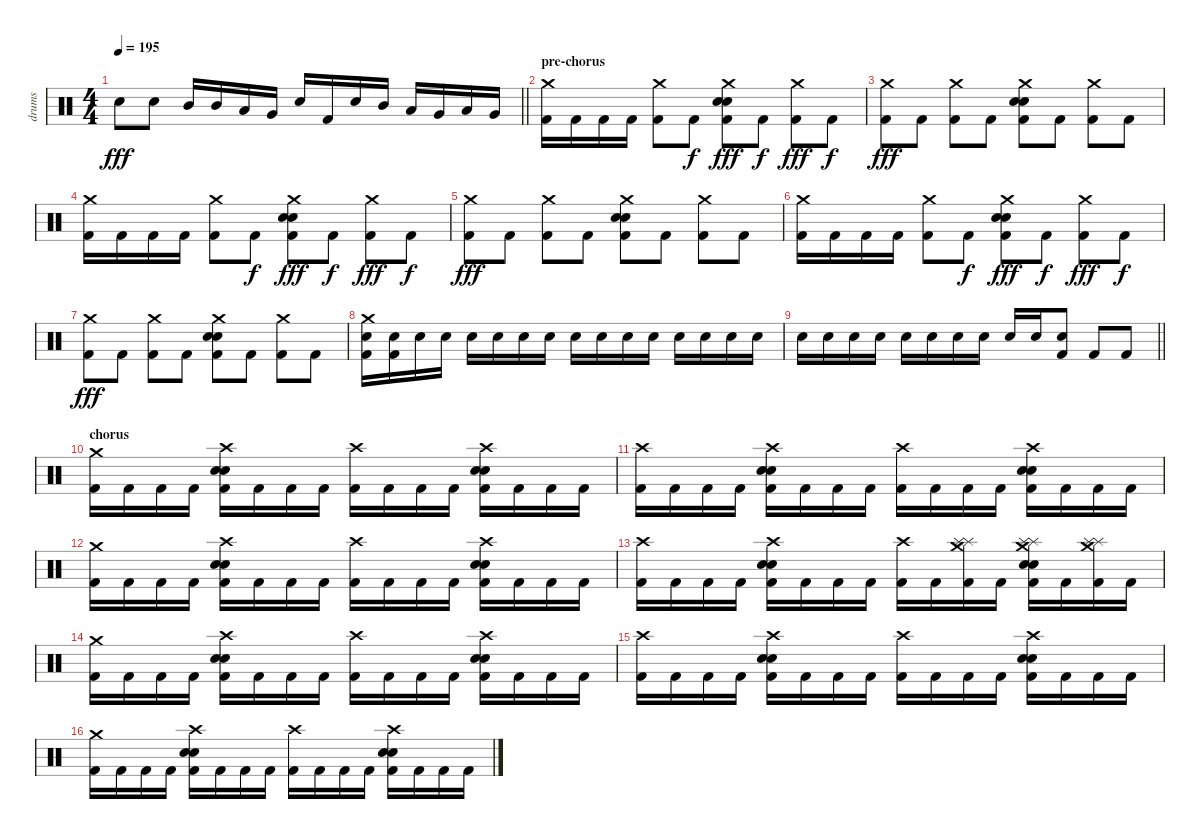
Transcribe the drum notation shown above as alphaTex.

\track ("drums" "drums") {instrument percussion bank 16}
\staff {score}
\articulation defaults
\ts (4 4)
\tempo 195
\clef neutral
\barLineRight lightlight
\ks c "Electric Snare (hit)".8{dy fff} "Electric Snare (hit)".8 "Mid Tom (hit)".16 "Mid Tom (hit)".16 "Low Tom (hit)".16 "Very Low Tom (hit)".16 "Electric Snare (hit)".16 "Kick (hit) 2".16 "Electric Snare (hit)".16 "Mid Tom (hit)".16 "Low Tom (hit)".16 "Very Low Tom (hit)".16 "Low Tom (hit)".16 "Very Low Tom (hit)".16
|
\section ("" "pre-chorus")
("Crash medium (hit)" "Kick (hit) 2").16 "Kick (hit) 2".16 "Kick (hit) 2".16 "Kick (hit) 2".16 ("Crash medium (hit)" "Kick (hit) 2").8 "Kick (hit) 2".8{dy f} ("Crash medium (hit)" "Electric Snare (hit)" "Electric Snare (hit)" "Kick (hit) 2").8{dy fff} "Kick (hit) 2".8{dy f} ("Crash medium (hit)" "Kick (hit) 2").8{dy fff} "Kick (hit) 2".8{dy f} |
("Crash medium (hit)" "Kick (hit) 2").8{dy fff} "Kick (hit) 2".8 ("Crash medium (hit)" "Kick (hit) 2").8 "Kick (hit) 2".8 ("Crash medium (hit)" "Electric Snare (hit)" "Electric Snare (hit)" "Kick (hit) 2").8 "Kick (hit) 2".8 ("Crash medium (hit)" "Kick (hit) 2").8 "Kick (hit) 2".8 |
("Crash medium (hit)" "Kick (hit) 2").16 "Kick (hit) 2".16 "Kick (hit) 2".16 "Kick (hit) 2".16 ("Crash medium (hit)" "Kick (hit) 2").8 "Kick (hit) 2".8{dy f} ("Crash medium (hit)" "Electric Snare (hit)" "Electric Snare (hit)" "Kick (hit) 2").8{dy fff} "Kick (hit) 2".8{dy f} ("Crash medium (hit)" "Kick (hit) 2").8{dy fff} "Kick (hit) 2".8{dy f} |
("Crash medium (hit)" "Kick (hit) 2").8{dy fff} "Kick (hit) 2".8 ("Crash medium (hit)" "Kick (hit) 2").8 "Kick (hit) 2".8 ("Crash medium (hit)" "Electric Snare (hit)" "Electric Snare (hit)" "Kick (hit) 2").8 "Kick (hit) 2".8 ("Crash medium (hit)" "Kick (hit) 2").8 "Kick (hit) 2".8 |
("Crash medium (hit)" "Kick (hit) 2").16 "Kick (hit) 2".16 "Kick (hit) 2".16 "Kick (hit) 2".16 ("Crash medium (hit)" "Kick (hit) 2").8 "Kick (hit) 2".8{dy f} ("Crash medium (hit)" "Electric Snare (hit)" "Electric Snare (hit)" "Kick (hit) 2").8{dy fff} "Kick (hit) 2".8{dy f} ("Crash medium (hit)" "Kick (hit) 2").8{dy fff} "Kick (hit) 2".8{dy f} |
("Crash medium (hit)" "Kick (hit) 2").8{dy fff} "Kick (hit) 2".8 ("Crash medium (hit)" "Kick (hit) 2").8 "Kick (hit) 2".8 ("Crash medium (hit)" "Electric Snare (hit)" "Electric Snare (hit)" "Kick (hit) 2").8 "Kick (hit) 2".8 ("Crash medium (hit)" "Kick (hit) 2").8 "Kick (hit) 2".8 |
("Crash medium (hit)" "Electric Snare (hit)" "Kick (hit) 2").16 ("Electric Snare (hit)" "Kick (hit) 2").16 "Electric Snare (hit)".16 "Electric Snare (hit)".16 "Electric Snare (hit)".16 "Electric Snare (hit)".16 "Electric Snare (hit)".16 "Electric Snare (hit)".16 "Electric Snare (hit)".16 "Electric Snare (hit)".16 "Electric Snare (hit)".16 "Electric Snare (hit)".16 "Electric Snare (hit)".16 "Electric Snare (hit)".16 "Electric Snare (hit)".16 "Electric Snare (hit)".16 |
\barLineRight lightlight "Electric Snare (hit)".16 "Electric Snare (hit)".16 "Electric Snare (hit)".16 "Electric Snare (hit)".16 "Electric Snare (hit)".16 "Electric Snare (hit)".16 "Electric Snare (hit)".16 "Electric Snare (hit)".16 "Electric Snare (hit)".16 "Electric Snare (hit)".16
("Electric Snare (hit)" "Kick (hit) 2").8 "Kick (hit) 2".8 "Kick (hit) 2".8 |
\section ("" "chorus")
("Crash medium (hit)" "Kick (hit) 2").16 "Kick (hit) 2".16 "Kick (hit) 2".16 "Kick (hit) 2".16 ("Crash high (hit)" "Electric Snare (hit)" "Electric Snare (hit)" "Kick (hit) 2").16 "Kick (hit) 2".16 "Kick (hit) 2".16 "Kick (hit) 2".16 ("Crash high (hit)" "Kick (hit) 2").16 "Kick (hit) 2".16 "Kick (hit) 2".16 "Kick (hit) 2".16 ("Crash high (hit)" "Electric Snare (hit)" "Electric Snare (hit)" "Kick (hit) 2").16 "Kick (hit) 2".16 "Kick (hit) 2".16 "Kick (hit) 2".16 |
("Crash high (hit)" "Kick (hit) 2").16 "Kick (hit) 2".16 "Kick (hit) 2".16 "Kick (hit) 2".16 ("Crash high (hit)" "Electric Snare (hit)" "Electric Snare (hit)" "Kick (hit) 2").16 "Kick (hit) 2".16 "Kick (hit) 2".16 "Kick (hit) 2".16 ("Crash high (hit)" "Kick (hit) 2").16 "Kick (hit) 2".16 "Kick (hit) 2".16 "Kick (hit) 2".16 ("Crash high (hit)" "Electric Snare (hit)" "Electric Snare (hit)" "Kick (hit) 2").16 "Kick (hit) 2".16 "Kick (hit) 2".16 "Kick (hit) 2".16 |
("Crash medium (hit)" "Kick (hit) 2").16 "Kick (hit) 2".16 "Kick (hit) 2".16 "Kick (hit) 2".16 ("Crash high (hit)" "Electric Snare (hit)" "Electric Snare (hit)" "Kick (hit) 2").16 "Kick (hit) 2".16 "Kick (hit) 2".16 "Kick (hit) 2".16 ("Crash high (hit)" "Kick (hit) 2").16 "Kick (hit) 2".16 "Kick (hit) 2".16 "Kick (hit) 2".16 ("Crash high (hit)" "Electric Snare (hit)" "Electric Snare (hit)" "Kick (hit) 2").16 "Kick (hit) 2".16 "Kick (hit) 2".16 "Kick (hit) 2".16 |
("Crash high (hit)" "Kick (hit) 2").16 "Kick (hit) 2".16 "Kick (hit) 2".16 "Kick (hit) 2".16 ("Crash high (hit)" "Electric Snare (hit)" "Electric Snare (hit)" "Kick (hit) 2").16 "Kick (hit) 2".16 "Kick (hit) 2".16 "Kick (hit) 2".16 ("Crash high (hit)" "Kick (hit) 2").16 "Kick (hit) 2".16 ("Splash (hit)" "Splash (hit)" "Crash medium (hit)" "Kick (hit) 2").16 "Kick (hit) 2".16 ("Splash (hit)" "Splash (hit)" "Crash medium (hit)" "Electric Snare (hit)" "Electric Snare (hit)" "Kick (hit) 2").16 "Kick (hit) 2".16 ("Splash (hit)" "Splash (hit)" "Crash medium (hit)" "Kick (hit) 2").16 "Kick (hit) 2".16 |
("Crash medium (hit)" "Kick (hit) 2").16 "Kick (hit) 2".16 "Kick (hit) 2".16 "Kick (hit) 2".16 ("Crash high (hit)" "Electric Snare (hit)" "Electric Snare (hit)" "Kick (hit) 2").16 "Kick (hit) 2".16 "Kick (hit) 2".16 "Kick (hit) 2".16 ("Crash high (hit)" "Kick (hit) 2").16 "Kick (hit) 2".16 "Kick (hit) 2".16 "Kick (hit) 2".16 ("Crash high (hit)" "Electric Snare (hit)" "Electric Snare (hit)" "Kick (hit) 2").16 "Kick (hit) 2".16 "Kick (hit) 2".16 "Kick (hit) 2".16 |
("Crash high (hit)" "Kick (hit) 2").16 "Kick (hit) 2".16 "Kick (hit) 2".16 "Kick (hit) 2".16 ("Crash high (hit)" "Electric Snare (hit)" "Electric Snare (hit)" "Kick (hit) 2").16 "Kick (hit) 2".16 "Kick (hit) 2".16 "Kick (hit) 2".16 ("Crash high (hit)" "Kick (hit) 2").16 "Kick (hit) 2".16 "Kick (hit) 2".16 "Kick (hit) 2".16 ("Crash high (hit)" "Electric Snare (hit)" "Electric Snare (hit)" "Kick (hit) 2").16 "Kick (hit) 2".16 "Kick (hit) 2".16 "Kick (hit) 2".16 |
("Crash medium (hit)" "Kick (hit) 2").16 "Kick (hit) 2".16 "Kick (hit) 2".16 "Kick (hit) 2".16 ("Crash high (hit)" "Electric Snare (hit)" "Electric Snare (hit)" "Kick (hit) 2").16 "Kick (hit) 2".16 "Kick (hit) 2".16 "Kick (hit) 2".16 ("Crash high (hit)" "Kick (hit) 2").16 "Kick (hit) 2".16 "Kick (hit) 2".16 "Kick (hit) 2".16 ("Crash high (hit)" "Electric Snare (hit)" "Electric Snare (hit)" "Kick (hit) 2").16 "Kick (hit) 2".16 "Kick (hit) 2".16 "Kick (hit) 2".16
